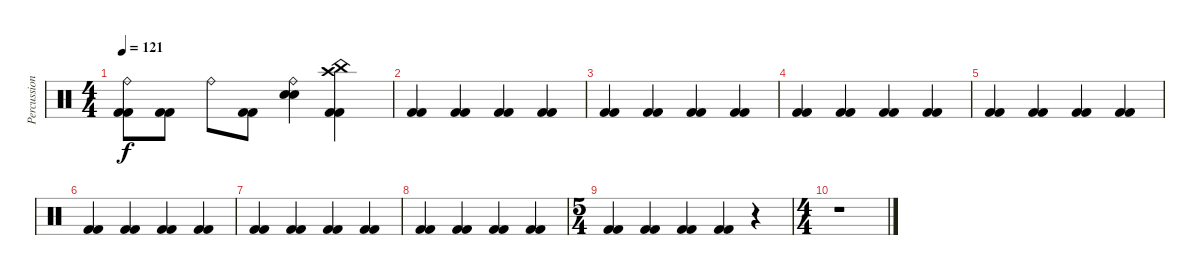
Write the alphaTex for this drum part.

\track ("Percussion" "Percussion") {instrument percussion}
\staff {score}
\articulation defaults
\ts (4 4)
\tempo 121
\clef neutral
\ks c
("Ride (bell)" "Kick (hit) 2" "Kick (hit) 2").8{dy f} ("Kick (hit) 2" "Kick (hit) 2").8 "Ride (bell)".8 ("Kick (hit) 2" "Kick (hit) 2").8 ("Ride (bell)" "Electric Snare (hit)" "Electric Snare (hit)").4 ("Crash high (hit)" "China (hit)" "Kick (hit) 2" "Kick (hit) 2").4 |
("Kick (hit) 2" "Kick (hit) 2").4 ("Kick (hit) 2" "Kick (hit) 2").4 ("Kick (hit) 2" "Kick (hit) 2").4 ("Kick (hit) 2" "Kick (hit) 2").4 |
("Kick (hit) 2" "Kick (hit) 2").4 ("Kick (hit) 2" "Kick (hit) 2").4 ("Kick (hit) 2" "Kick (hit) 2").4 ("Kick (hit) 2" "Kick (hit) 2").4 |
("Kick (hit) 2" "Kick (hit) 2").4 ("Kick (hit) 2" "Kick (hit) 2").4 ("Kick (hit) 2" "Kick (hit) 2").4 ("Kick (hit) 2" "Kick (hit) 2").4 |
("Kick (hit) 2" "Kick (hit) 2").4 ("Kick (hit) 2" "Kick (hit) 2").4 ("Kick (hit) 2" "Kick (hit) 2").4 ("Kick (hit) 2" "Kick (hit) 2").4 |
("Kick (hit) 2" "Kick (hit) 2").4 ("Kick (hit) 2" "Kick (hit) 2").4 ("Kick (hit) 2" "Kick (hit) 2").4 ("Kick (hit) 2" "Kick (hit) 2").4 |
("Kick (hit) 2" "Kick (hit) 2").4 ("Kick (hit) 2" "Kick (hit) 2").4 ("Kick (hit) 2" "Kick (hit) 2").4 ("Kick (hit) 2" "Kick (hit) 2").4 |
("Kick (hit) 2" "Kick (hit) 2").4 ("Kick (hit) 2" "Kick (hit) 2").4 ("Kick (hit) 2" "Kick (hit) 2").4 ("Kick (hit) 2" "Kick (hit) 2").4 |
\ts (5 4)
("Kick (hit) 2" "Kick (hit) 2").4 ("Kick (hit) 2" "Kick (hit) 2").4 ("Kick (hit) 2" "Kick (hit) 2").4 ("Kick (hit) 2" "Kick (hit) 2").4 r.4 |
\ts (4 4)
r.1
